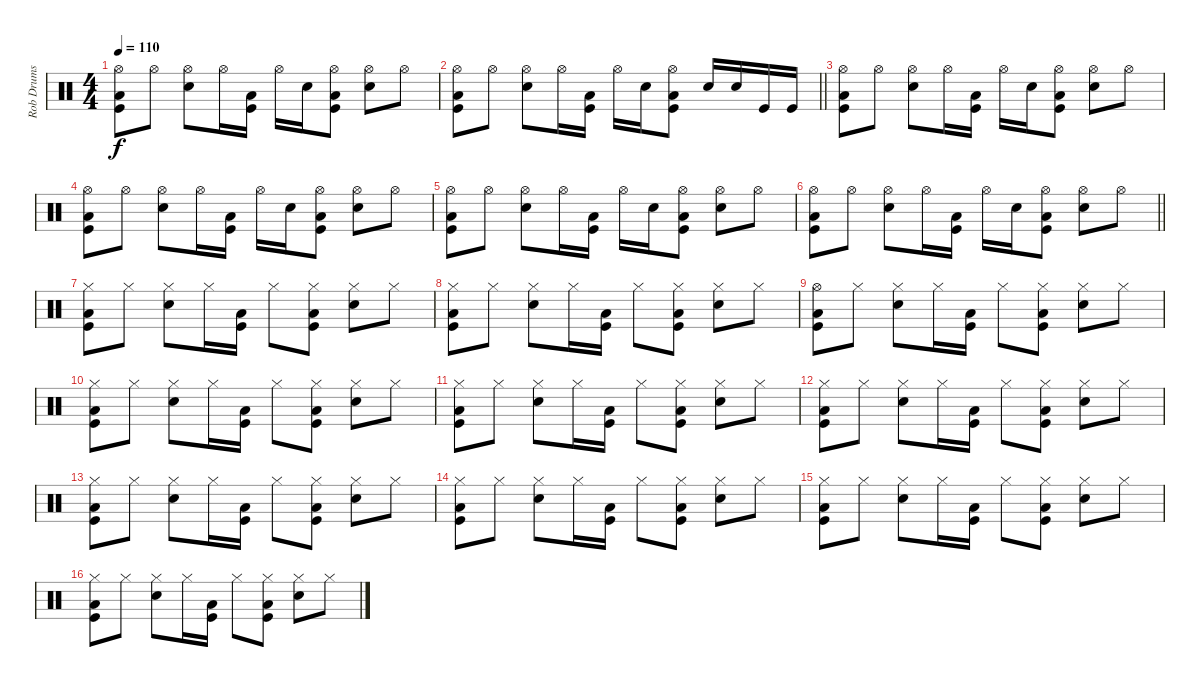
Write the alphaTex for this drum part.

\track ("Rob Drums" "Rob Drums") {instrument percussion}
\staff {score}
\articulation defaults
\ts (4 4)
\tempo 110
\clef neutral
\ks c
("Hi-Hat (open)" "Kick (hit)" "Low Tom (hit)").8{dy f} "Hi-Hat (open)".8 ("Hi-Hat (open)" "Snare (hit) 2").8 "Hi-Hat (open)".16 ("Kick (hit)" "Low Tom (hit)").16 "Hi-Hat (open)".16 "Snare (hit) 2".16 ("Hi-Hat (open)" "Kick (hit)" "Low Tom (hit)").8 ("Hi-Hat (open)" "Snare (hit) 2").8 "Hi-Hat (open)".8 |
\barLineRight lightlight
("Hi-Hat (open)" "Kick (hit)" "Low Tom (hit)").8 "Hi-Hat (open)".8 ("Hi-Hat (open)" "Snare (hit) 2").8 "Hi-Hat (open)".16 ("Kick (hit)" "Low Tom (hit)").16 "Hi-Hat (open)".16 "Snare (hit) 2".16 ("Hi-Hat (open)" "Kick (hit)" "Low Tom (hit)").8 "Snare (hit) 2".16 "Snare (hit) 2".16 "Kick (hit)".16 "Kick (hit)".16 |
("Hi-Hat (open)" "Kick (hit)" "Low Tom (hit)").8 "Hi-Hat (open)".8 ("Hi-Hat (open)" "Snare (hit) 2").8 "Hi-Hat (open)".16 ("Kick (hit)" "Low Tom (hit)").16 "Hi-Hat (open)".16 "Snare (hit) 2".16 ("Hi-Hat (open)" "Kick (hit)" "Low Tom (hit)").8 ("Hi-Hat (open)" "Snare (hit) 2").8 "Hi-Hat (open)".8 |
("Hi-Hat (open)" "Kick (hit)" "Low Tom (hit)").8 "Hi-Hat (open)".8 ("Hi-Hat (open)" "Snare (hit) 2").8 "Hi-Hat (open)".16 ("Kick (hit)" "Low Tom (hit)").16 "Hi-Hat (open)".16 "Snare (hit) 2".16 ("Hi-Hat (open)" "Kick (hit)" "Low Tom (hit)").8 ("Hi-Hat (open)" "Snare (hit) 2").8 "Hi-Hat (open)".8 |
("Hi-Hat (open)" "Kick (hit)" "Low Tom (hit)").8 "Hi-Hat (open)".8 ("Hi-Hat (open)" "Snare (hit) 2").8 "Hi-Hat (open)".16 ("Kick (hit)" "Low Tom (hit)").16 "Hi-Hat (open)".16 "Snare (hit) 2".16 ("Hi-Hat (open)" "Kick (hit)" "Low Tom (hit)").8 ("Hi-Hat (open)" "Snare (hit) 2").8 "Hi-Hat (open)".8 |
\barLineRight lightlight
("Hi-Hat (open)" "Kick (hit)" "Low Tom (hit)").8 "Hi-Hat (open)".8 ("Hi-Hat (open)" "Snare (hit) 2").8 "Hi-Hat (open)".16 ("Kick (hit)" "Low Tom (hit)").16 "Hi-Hat (open)".16 "Snare (hit) 2".16 ("Hi-Hat (open)" "Kick (hit)" "Low Tom (hit)").8 ("Hi-Hat (open)" "Snare (hit) 2").8 "Hi-Hat (open)".8 |
("Hi-Hat (closed)" "Kick (hit)" "Low Tom (hit)").8 "Hi-Hat (closed)".8 ("Hi-Hat (closed)" "Snare (hit) 2").8 "Hi-Hat (closed)".16 ("Kick (hit)" "Low Tom (hit)").16 "Hi-Hat (closed)".8 ("Hi-Hat (closed)" "Kick (hit)" "Low Tom (hit)").8 ("Hi-Hat (closed)" "Snare (hit) 2").8 "Hi-Hat (closed)".8 |
("Hi-Hat (closed)" "Kick (hit)" "Low Tom (hit)").8 "Hi-Hat (closed)".8 ("Hi-Hat (closed)" "Snare (hit) 2").8 "Hi-Hat (closed)".16 ("Kick (hit)" "Low Tom (hit)").16 "Hi-Hat (closed)".8 ("Hi-Hat (closed)" "Kick (hit)" "Low Tom (hit)").8 ("Hi-Hat (closed)" "Snare (hit) 2").8 "Hi-Hat (closed)".8 |
("Hi-Hat (open)" "Kick (hit)" "Low Tom (hit)").8 "Hi-Hat (closed)".8 ("Hi-Hat (closed)" "Snare (hit) 2").8 "Hi-Hat (closed)".16 ("Kick (hit)" "Low Tom (hit)").16 "Hi-Hat (closed)".8 ("Hi-Hat (closed)" "Kick (hit)" "Low Tom (hit)").8 ("Hi-Hat (closed)" "Snare (hit) 2").8 "Hi-Hat (closed)".8 |
("Hi-Hat (closed)" "Kick (hit)" "Low Tom (hit)").8 "Hi-Hat (closed)".8 ("Hi-Hat (closed)" "Snare (hit) 2").8 "Hi-Hat (closed)".16 ("Kick (hit)" "Low Tom (hit)").16 "Hi-Hat (closed)".8 ("Hi-Hat (closed)" "Kick (hit)" "Low Tom (hit)").8 ("Hi-Hat (closed)" "Snare (hit) 2").8 "Hi-Hat (closed)".8 |
("Hi-Hat (closed)" "Kick (hit)" "Low Tom (hit)").8 "Hi-Hat (closed)".8 ("Hi-Hat (closed)" "Snare (hit) 2").8 "Hi-Hat (closed)".16 ("Kick (hit)" "Low Tom (hit)").16 "Hi-Hat (closed)".8 ("Hi-Hat (closed)" "Kick (hit)" "Low Tom (hit)").8 ("Hi-Hat (closed)" "Snare (hit) 2").8 "Hi-Hat (closed)".8 |
("Hi-Hat (closed)" "Kick (hit)" "Low Tom (hit)").8 "Hi-Hat (closed)".8 ("Hi-Hat (closed)" "Snare (hit) 2").8 "Hi-Hat (closed)".16 ("Kick (hit)" "Low Tom (hit)").16 "Hi-Hat (closed)".8 ("Hi-Hat (closed)" "Kick (hit)" "Low Tom (hit)").8 ("Hi-Hat (closed)" "Snare (hit) 2").8 "Hi-Hat (closed)".8 |
("Hi-Hat (closed)" "Kick (hit)" "Low Tom (hit)").8 "Hi-Hat (closed)".8 ("Hi-Hat (closed)" "Snare (hit) 2").8 "Hi-Hat (closed)".16 ("Kick (hit)" "Low Tom (hit)").16 "Hi-Hat (closed)".8 ("Hi-Hat (closed)" "Kick (hit)" "Low Tom (hit)").8 ("Hi-Hat (closed)" "Snare (hit) 2").8 "Hi-Hat (closed)".8 |
("Hi-Hat (closed)" "Kick (hit)" "Low Tom (hit)").8 "Hi-Hat (closed)".8 ("Hi-Hat (closed)" "Snare (hit) 2").8 "Hi-Hat (closed)".16 ("Kick (hit)" "Low Tom (hit)").16 "Hi-Hat (closed)".8 ("Hi-Hat (closed)" "Kick (hit)" "Low Tom (hit)").8 ("Hi-Hat (closed)" "Snare (hit) 2").8 "Hi-Hat (closed)".8 |
("Hi-Hat (closed)" "Kick (hit)" "Low Tom (hit)").8 "Hi-Hat (closed)".8 ("Hi-Hat (closed)" "Snare (hit) 2").8 "Hi-Hat (closed)".16 ("Kick (hit)" "Low Tom (hit)").16 "Hi-Hat (closed)".8 ("Hi-Hat (closed)" "Kick (hit)" "Low Tom (hit)").8 ("Hi-Hat (closed)" "Snare (hit) 2").8 "Hi-Hat (closed)".8 |
("Hi-Hat (closed)" "Kick (hit)" "Low Tom (hit)").8 "Hi-Hat (closed)".8 ("Hi-Hat (closed)" "Snare (hit) 2").8 "Hi-Hat (closed)".16 ("Kick (hit)" "Low Tom (hit)").16 "Hi-Hat (closed)".8 ("Hi-Hat (closed)" "Kick (hit)" "Low Tom (hit)").8 ("Hi-Hat (closed)" "Snare (hit) 2").8 "Hi-Hat (closed)".8
